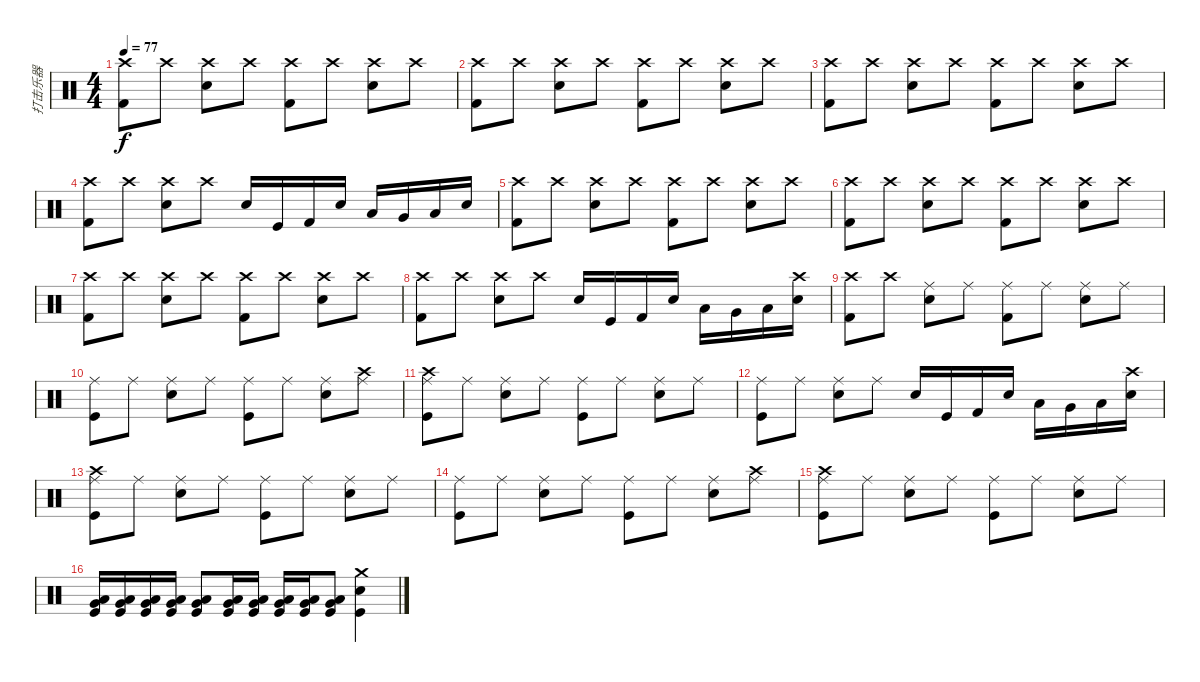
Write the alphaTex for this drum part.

\track ("打击乐器" "打击乐器") {instrument percussion}
\staff {score}
\articulation defaults
\ts (4 4)
\tempo 77
\clef neutral
\ks c
("Crash high (hit)" "Kick (hit) 2").8{dy f} "Crash high (hit)".8 ("Crash high (hit)" "Snare (hit) 2").8 "Crash high (hit)".8 ("Crash high (hit)" "Kick (hit) 2").8 "Crash high (hit)".8 ("Crash high (hit)" "Snare (hit) 2").8 "Crash high (hit)".8 |
("Crash high (hit)" "Kick (hit) 2").8 "Crash high (hit)".8 ("Crash high (hit)" "Snare (hit) 2").8 "Crash high (hit)".8 ("Crash high (hit)" "Kick (hit) 2").8 "Crash high (hit)".8 ("Crash high (hit)" "Snare (hit) 2").8 "Crash high (hit)".8 |
("Crash high (hit)" "Kick (hit) 2").8 "Crash high (hit)".8 ("Crash high (hit)" "Snare (hit) 2").8 "Crash high (hit)".8 ("Crash high (hit)" "Kick (hit) 2").8 "Crash high (hit)".8 ("Crash high (hit)" "Snare (hit) 2").8 "Crash high (hit)".8 |
("Crash high (hit)" "Kick (hit) 2").8 "Crash high (hit)".8 ("Crash high (hit)" "Snare (hit) 2").8 "Crash high (hit)".8 "Snare (hit) 2".16 "Kick (hit)".16 "Kick (hit) 2".16 "Snare (hit) 2".16 "Low Floor Tom (hit)".16 "Very Low Tom (hit)".16 "Low Tom (hit)".16 "Snare (hit) 2".16 |
("Crash high (hit)" "Kick (hit) 2").8 "Crash high (hit)".8 ("Crash high (hit)" "Snare (hit) 2").8 "Crash high (hit)".8 ("Crash high (hit)" "Kick (hit) 2").8 "Crash high (hit)".8 ("Crash high (hit)" "Snare (hit) 2").8 "Crash high (hit)".8 |
("Crash high (hit)" "Kick (hit) 2").8 "Crash high (hit)".8 ("Crash high (hit)" "Snare (hit) 2").8 "Crash high (hit)".8 ("Crash high (hit)" "Kick (hit) 2").8 "Crash high (hit)".8 ("Crash high (hit)" "Snare (hit) 2").8 "Crash high (hit)".8 |
("Crash high (hit)" "Kick (hit) 2").8 "Crash high (hit)".8 ("Crash high (hit)" "Snare (hit) 2").8 "Crash high (hit)".8 ("Crash high (hit)" "Kick (hit) 2").8 "Crash high (hit)".8 ("Crash high (hit)" "Snare (hit) 2").8 "Crash high (hit)".8 |
("Crash high (hit)" "Kick (hit) 2").8 "Crash high (hit)".8 ("Crash high (hit)" "Snare (hit) 2").8 "Crash high (hit)".8 "Snare (hit) 2".16 "Kick (hit)".16 "Kick (hit) 2".16 "Snare (hit) 2".16 "Low Floor Tom (hit)".16 "Very Low Tom (hit)".16 "Low Tom (hit)".16 ("Crash high (hit)" "Snare (hit) 2").16 |
("Crash high (hit)" "Kick (hit) 2").8 "Crash high (hit)".8 ("Ride (middle)" "Snare (hit) 2").8 "Ride (middle)".8 ("Ride (middle)" "Kick (hit) 2").8 "Ride (middle)".8 ("Ride (middle)" "Snare (hit) 2").8 "Ride (middle)".8 |
("Ride (middle)" "Kick (hit)").8 "Ride (middle)".8 ("Ride (middle)" "Snare (hit) 2").8 "Ride (middle)".8 ("Ride (middle)" "Kick (hit)").8 "Ride (middle)".8 ("Ride (middle)" "Snare (hit) 2").8 ("Ride (middle)" "Crash high (hit)").8 |
("Ride (middle)" "Kick (hit)" "Crash high (hit)").8 "Ride (middle)".8 ("Ride (middle)" "Snare (hit) 2").8 "Ride (middle)".8 ("Ride (middle)" "Kick (hit)").8 "Ride (middle)".8 ("Ride (middle)" "Snare (hit) 2").8 "Ride (middle)".8 |
("Ride (middle)" "Kick (hit)").8 "Ride (middle)".8 ("Ride (middle)" "Snare (hit) 2").8 "Ride (middle)".8 "Snare (hit) 2".16 "Kick (hit)".16 "Kick (hit) 2".16 "Snare (hit) 2".16 "Low Floor Tom (hit)".16 "Very Low Tom (hit)".16 "Low Tom (hit)".16 ("Crash high (hit)" "Snare (hit) 2").16 |
("Ride (middle)" "Kick (hit)" "Crash high (hit)").8 "Ride (middle)".8 ("Ride (middle)" "Snare (hit) 2").8 "Ride (middle)".8 ("Ride (middle)" "Kick (hit)").8 "Ride (middle)".8 ("Ride (middle)" "Snare (hit) 2").8 "Ride (middle)".8 |
("Ride (middle)" "Kick (hit)").8 "Ride (middle)".8 ("Ride (middle)" "Snare (hit) 2").8 "Ride (middle)".8 ("Ride (middle)" "Kick (hit)").8 "Ride (middle)".8 ("Ride (middle)" "Snare (hit) 2").8 ("Ride (middle)" "Crash high (hit)").8 |
("Ride (middle)" "Kick (hit)" "Crash high (hit)").8 "Ride (middle)".8 ("Ride (middle)" "Snare (hit) 2").8 "Ride (middle)".8 ("Ride (middle)" "Kick (hit)").8 "Ride (middle)".8 ("Ride (middle)" "Snare (hit) 2").8 "Ride (middle)".8 |
("Very Low Tom (hit)" "Low Floor Tom (hit)" "Kick (hit)").16 ("Very Low Tom (hit)" "Low Floor Tom (hit)" "Kick (hit)").16 ("Very Low Tom (hit)" "Low Floor Tom (hit)" "Kick (hit)").16 ("Very Low Tom (hit)" "Low Floor Tom (hit)" "Kick (hit)").16 ("Very Low Tom (hit)" "Low Floor Tom (hit)" "Kick (hit)").8 ("Very Low Tom (hit)" "Low Floor Tom (hit)" "Kick (hit)").16 ("Very Low Tom (hit)" "Low Floor Tom (hit)" "Kick (hit)").16 ("Very Low Tom (hit)" "Low Floor Tom (hit)" "Kick (hit)").16 ("Very Low Tom (hit)" "Low Floor Tom (hit)" "Kick (hit)").16 ("Very Low Tom (hit)" "Low Floor Tom (hit)" "Kick (hit)").8 ("Snare (hit) 2" "Crash medium (hit)" "Kick (hit)").4
